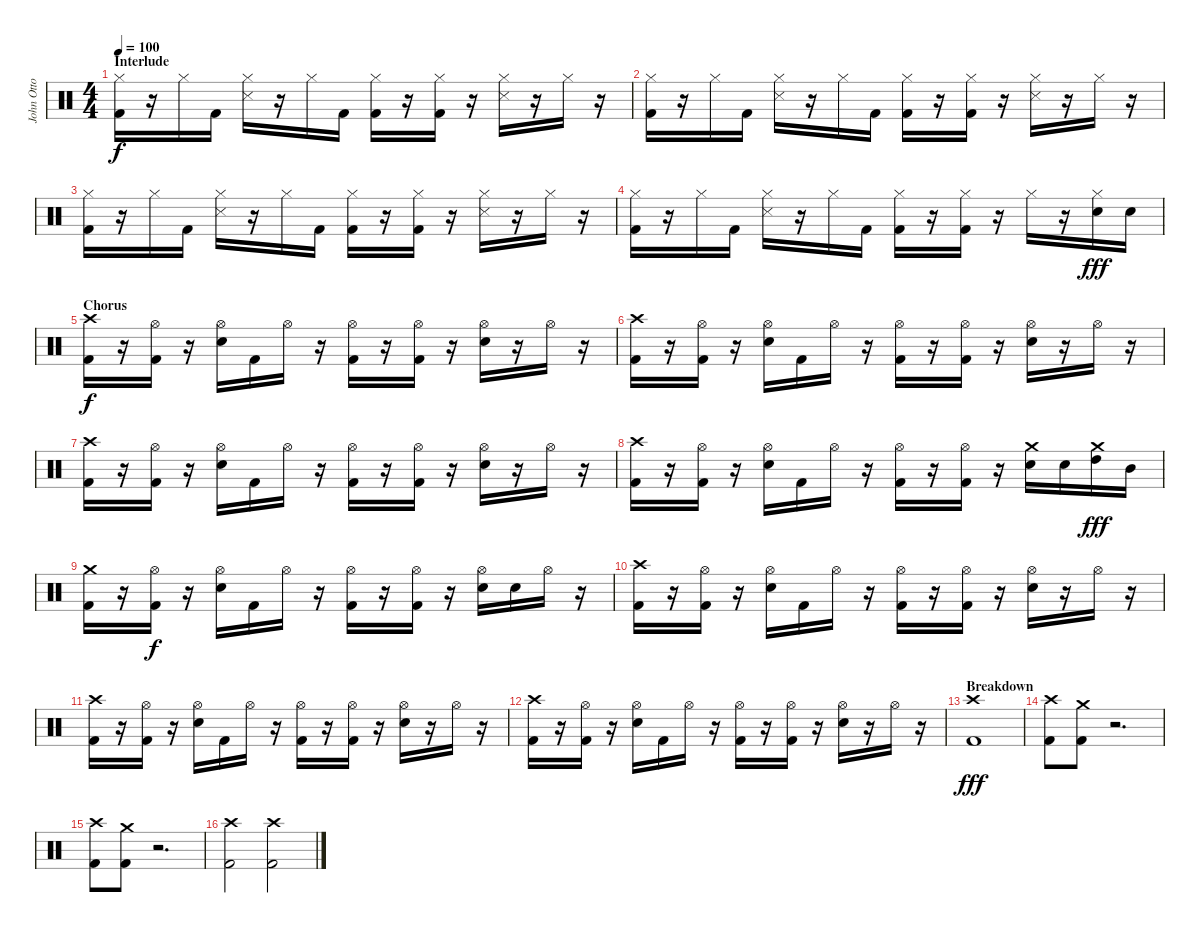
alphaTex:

\track ("John Otto - Drums" "John Otto ") {instrument percussion}
\staff {score}
\articulation defaults
\ts (4 4)
\section ("" "Interlude")
\tempo 100
\clef neutral
\ks c
("Hi-Hat (closed)" "Kick (hit) 2").16{dy f} r.16 "Hi-Hat (closed)".16 "Kick (hit) 2".16 ("Hi-Hat (closed)" "Snare (side stick) 3").16 r.16 "Hi-Hat (closed)".16 "Kick (hit) 2".16 ("Hi-Hat (closed)" "Kick (hit) 2").16 r.16 ("Hi-Hat (closed)" "Kick (hit) 2").16 r.16 ("Hi-Hat (closed)" "Snare (side stick) 3").16 r.16 "Hi-Hat (closed)".16 r.16 |
("Hi-Hat (closed)" "Kick (hit) 2").16 r.16 "Hi-Hat (closed)".16 "Kick (hit) 2".16 ("Hi-Hat (closed)" "Snare (side stick) 3").16 r.16 "Hi-Hat (closed)".16 "Kick (hit) 2".16 ("Hi-Hat (closed)" "Kick (hit) 2").16 r.16 ("Hi-Hat (closed)" "Kick (hit) 2").16 r.16 ("Hi-Hat (closed)" "Snare (side stick) 3").16 r.16 "Hi-Hat (closed)".16 r.16 |
("Hi-Hat (closed)" "Kick (hit) 2").16 r.16 "Hi-Hat (closed)".16 "Kick (hit) 2".16 ("Hi-Hat (closed)" "Snare (side stick) 3").16 r.16 "Hi-Hat (closed)".16 "Kick (hit) 2".16 ("Hi-Hat (closed)" "Kick (hit) 2").16 r.16 ("Hi-Hat (closed)" "Kick (hit) 2").16 r.16 ("Hi-Hat (closed)" "Snare (side stick) 3").16 r.16 "Hi-Hat (closed)".16 r.16 |
("Hi-Hat (closed)" "Kick (hit) 2").16 r.16 "Hi-Hat (closed)".16 "Kick (hit) 2".16 ("Hi-Hat (closed)" "Snare (side stick) 3").16 r.16 "Hi-Hat (closed)".16 "Kick (hit) 2".16 ("Hi-Hat (closed)" "Kick (hit) 2").16 r.16 ("Hi-Hat (closed)" "Kick (hit) 2").16 r.16 "Hi-Hat (closed)".16 r.16 ("Hi-Hat (closed)" "Electric Snare (hit)").16{dy fff} "Electric Snare (hit)".16 |
\section ("" "Chorus")
("Crash high (hit)" "Kick (hit) 2").16{dy f} r.16 ("Hi-Hat (open)" "Kick (hit) 2").16 r.16 ("Hi-Hat (open)" "Electric Snare (hit)").16 "Kick (hit) 2".16 "Hi-Hat (open)".16 r.16 ("Hi-Hat (open)" "Kick (hit) 2").16 r.16 ("Hi-Hat (open)" "Kick (hit) 2").16 r.16 ("Hi-Hat (open)" "Electric Snare (hit)").16 r.16 "Hi-Hat (open)".16 r.16 |
("Crash high (hit)" "Kick (hit) 2").16 r.16 ("Hi-Hat (open)" "Kick (hit) 2").16 r.16 ("Hi-Hat (open)" "Electric Snare (hit)").16 "Kick (hit) 2".16 "Hi-Hat (open)".16 r.16 ("Hi-Hat (open)" "Kick (hit) 2").16 r.16 ("Hi-Hat (open)" "Kick (hit) 2").16 r.16 ("Hi-Hat (open)" "Electric Snare (hit)").16 r.16 "Hi-Hat (open)".16 r.16 |
("Crash high (hit)" "Kick (hit) 2").16 r.16 ("Hi-Hat (open)" "Kick (hit) 2").16 r.16 ("Hi-Hat (open)" "Electric Snare (hit)").16 "Kick (hit) 2".16 "Hi-Hat (open)".16 r.16 ("Hi-Hat (open)" "Kick (hit) 2").16 r.16 ("Hi-Hat (open)" "Kick (hit) 2").16 r.16 ("Hi-Hat (open)" "Electric Snare (hit)").16 r.16 "Hi-Hat (open)".16 r.16 |
("Crash high (hit)" "Kick (hit) 2").16 r.16 ("Hi-Hat (open)" "Kick (hit) 2").16 r.16 ("Hi-Hat (open)" "Electric Snare (hit)").16 "Kick (hit) 2".16 "Hi-Hat (open)".16 r.16 ("Hi-Hat (open)" "Kick (hit) 2").16 r.16 ("Hi-Hat (open)" "Kick (hit) 2").16 r.16 ("Crash medium (hit)" "Electric Snare (hit)").16 "Electric Snare (hit)".16 ("Crash medium (hit)" "High Tom (hit)").16{dy fff} "Mid Tom (hit)".16 |
("Crash medium (hit)" "Kick (hit) 2").16 r.16 ("Hi-Hat (open)" "Kick (hit) 2").16{dy f} r.16 ("Hi-Hat (open)" "Electric Snare (hit)").16 "Kick (hit) 2".16 "Hi-Hat (open)".16 r.16 ("Hi-Hat (open)" "Kick (hit) 2").16 r.16 ("Hi-Hat (open)" "Kick (hit) 2").16 r.16 ("Hi-Hat (open)" "Electric Snare (hit)").16 "Electric Snare (hit)".16 "Hi-Hat (open)".16 r.16 |
("Crash high (hit)" "Kick (hit) 2").16 r.16 ("Hi-Hat (open)" "Kick (hit) 2").16 r.16 ("Hi-Hat (open)" "Electric Snare (hit)").16 "Kick (hit) 2".16 "Hi-Hat (open)".16 r.16 ("Hi-Hat (open)" "Kick (hit) 2").16 r.16 ("Hi-Hat (open)" "Kick (hit) 2").16 r.16 ("Hi-Hat (open)" "Electric Snare (hit)").16 r.16 "Hi-Hat (open)".16 r.16 |
("Crash high (hit)" "Kick (hit) 2").16 r.16 ("Hi-Hat (open)" "Kick (hit) 2").16 r.16 ("Hi-Hat (open)" "Electric Snare (hit)").16 "Kick (hit) 2".16 "Hi-Hat (open)".16 r.16 ("Hi-Hat (open)" "Kick (hit) 2").16 r.16 ("Hi-Hat (open)" "Kick (hit) 2").16 r.16 ("Hi-Hat (open)" "Electric Snare (hit)").16 r.16 "Hi-Hat (open)".16 r.16 |
("Crash high (hit)" "Kick (hit) 2").16 r.16 ("Hi-Hat (open)" "Kick (hit) 2").16 r.16 ("Hi-Hat (open)" "Electric Snare (hit)").16 "Kick (hit) 2".16 "Hi-Hat (open)".16 r.16 ("Hi-Hat (open)" "Kick (hit) 2").16 r.16 ("Hi-Hat (open)" "Kick (hit) 2").16 r.16 ("Hi-Hat (open)" "Electric Snare (hit)").16 r.16 "Hi-Hat (open)".16 r.16 |
\section ("" "Breakdown")
("Crash high (hit)" "Kick (hit) 2").1{dy fff} |
("Crash high (hit)" "Kick (hit) 2").8 ("Crash medium (hit)" "Kick (hit) 2").8 r.2{d} |
("Crash high (hit)" "Kick (hit) 2").8 ("Crash medium (hit)" "Kick (hit) 2").8 r.2{d} |
("Crash high (hit)" "Kick (hit) 2").2 ("Crash high (hit)" "Kick (hit) 2").2
